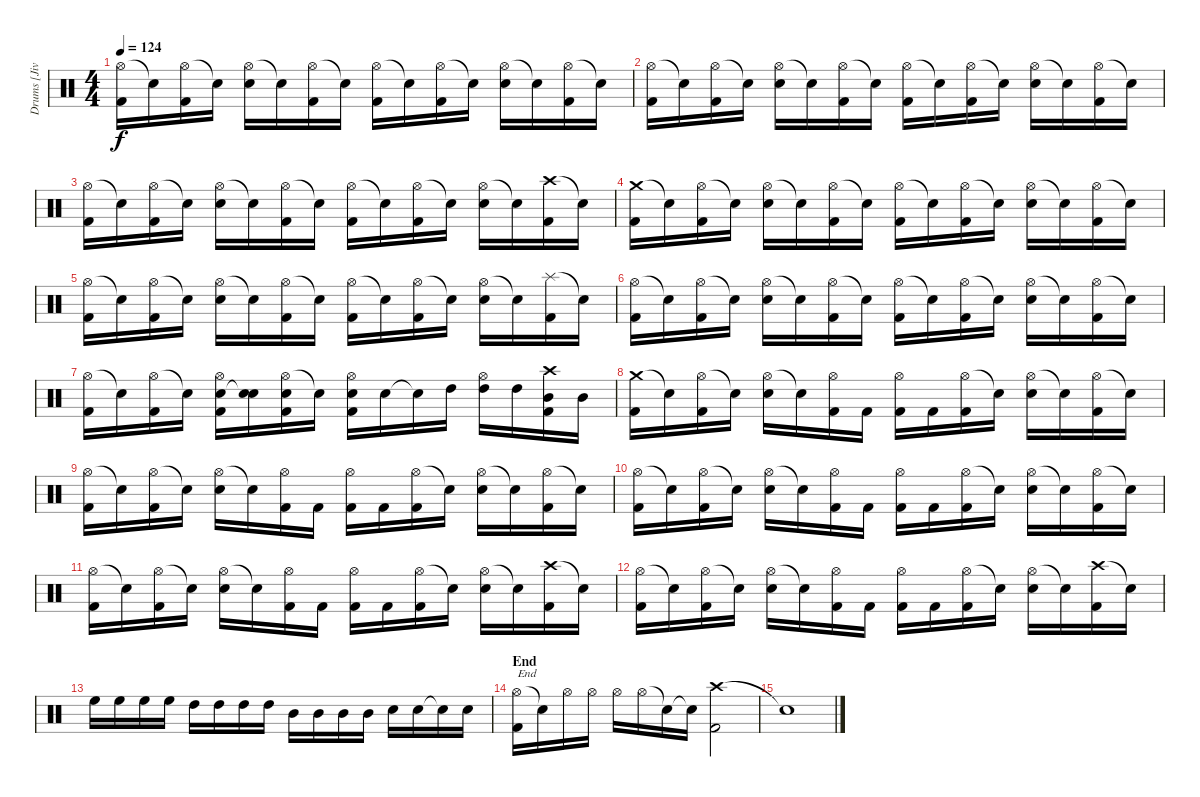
\track ("Drums [Jivarp]" "Drums [Jiv") {instrument percussion}
\staff {score}
\articulation defaults
\ts (4 4)
\tempo 124
\clef neutral
\ks c
("Hi-Hat (open)" "Kick (hit) 2").16{dy f} "Snare (hit)"{t}.16 ("Hi-Hat (open)" "Kick (hit) 2").16 "Snare (hit)"{t}.16 ("Hi-Hat (open)" "Electric Snare (hit)").16 "Snare (hit)"{t}.16 ("Hi-Hat (open)" "Kick (hit) 2").16 "Snare (hit)"{t}.16 ("Hi-Hat (open)" "Kick (hit) 2").16 "Snare (hit)"{t}.16 ("Hi-Hat (open)" "Kick (hit) 2").16 "Snare (hit)"{t}.16 ("Hi-Hat (open)" "Electric Snare (hit)").16 "Snare (hit)"{t}.16 ("Hi-Hat (open)" "Kick (hit) 2").16 "Snare (hit)"{t}.16 |
("Hi-Hat (open)" "Kick (hit) 2").16 "Snare (hit)"{t}.16 ("Hi-Hat (open)" "Kick (hit) 2").16 "Snare (hit)"{t}.16 ("Hi-Hat (open)" "Electric Snare (hit)").16 "Snare (hit)"{t}.16 ("Hi-Hat (open)" "Kick (hit) 2").16 "Snare (hit)"{t}.16 ("Hi-Hat (open)" "Kick (hit) 2").16 "Snare (hit)"{t}.16 ("Hi-Hat (open)" "Kick (hit) 2").16 "Snare (hit)"{t}.16 ("Hi-Hat (open)" "Electric Snare (hit)").16 "Snare (hit)"{t}.16 ("Hi-Hat (open)" "Kick (hit) 2").16 "Snare (hit)"{t}.16 |
("Hi-Hat (open)" "Kick (hit) 2").16 "Snare (hit)"{t}.16 ("Hi-Hat (open)" "Kick (hit) 2").16 "Snare (hit)"{t}.16 ("Hi-Hat (open)" "Electric Snare (hit)").16 "Snare (hit)"{t}.16 ("Hi-Hat (open)" "Kick (hit) 2").16 "Snare (hit)"{t}.16 ("Hi-Hat (open)" "Kick (hit) 2").16 "Snare (hit)"{t}.16 ("Hi-Hat (open)" "Kick (hit) 2").16 "Snare (hit)"{t}.16 ("Hi-Hat (open)" "Electric Snare (hit)").16 "Snare (hit)"{t}.16 ("Crash high (hit)" "Kick (hit) 2").16 "Snare (hit)"{t}.16 |
("Crash medium (hit)" "Kick (hit) 2").16 "Snare (hit)"{t}.16 ("Hi-Hat (open)" "Kick (hit) 2").16 "Snare (hit)"{t}.16 ("Hi-Hat (open)" "Electric Snare (hit)").16 "Snare (hit)"{t}.16 ("Hi-Hat (open)" "Kick (hit) 2").16 "Snare (hit)"{t}.16 ("Hi-Hat (open)" "Kick (hit) 2").16 "Snare (hit)"{t}.16 ("Hi-Hat (open)" "Kick (hit) 2").16 "Snare (hit)"{t}.16 ("Hi-Hat (open)" "Electric Snare (hit)").16 "Snare (hit)"{t}.16 ("Hi-Hat (open)" "Kick (hit) 2").16 "Snare (hit)"{t}.16 |
("Hi-Hat (open)" "Kick (hit) 2").16 "Snare (hit)"{t}.16 ("Hi-Hat (open)" "Kick (hit) 2").16 "Snare (hit)"{t}.16 ("Hi-Hat (open)" "Electric Snare (hit)").16 "Snare (hit)"{t}.16 ("Hi-Hat (open)" "Kick (hit) 2").16 "Snare (hit)"{t}.16 ("Hi-Hat (open)" "Kick (hit) 2").16 "Snare (hit)"{t}.16 ("Hi-Hat (open)" "Kick (hit) 2").16 "Snare (hit)"{t}.16 ("Hi-Hat (open)" "Electric Snare (hit)").16 "Snare (hit)"{t}.16 ("Splash (hit)" "Kick (hit) 2").16 "Snare (hit)"{t}.16 |
("Hi-Hat (open)" "Kick (hit) 2").16 "Snare (hit)"{t}.16 ("Hi-Hat (open)" "Kick (hit) 2").16 "Snare (hit)"{t}.16 ("Hi-Hat (open)" "Electric Snare (hit)").16 "Snare (hit)"{t}.16 ("Hi-Hat (open)" "Kick (hit) 2").16 "Snare (hit)"{t}.16 ("Hi-Hat (open)" "Kick (hit) 2").16 "Snare (hit)"{t}.16 ("Hi-Hat (open)" "Kick (hit) 2").16 "Snare (hit)"{t}.16 ("Hi-Hat (open)" "Electric Snare (hit)").16 "Snare (hit)"{t}.16 ("Hi-Hat (open)" "Kick (hit) 2").16 "Snare (hit)"{t}.16 |
("Hi-Hat (open)" "Kick (hit) 2").16 "Snare (hit)"{t}.16 ("Hi-Hat (open)" "Kick (hit) 2").16 "Snare (hit)"{t}.16 ("Hi-Hat (open)" "Electric Snare (hit)" "Kick (hit) 2").16 ("Electric Snare (hit)" "Snare (hit)"{t}).16 ("Hi-Hat (open)" "Electric Snare (hit)" "Kick (hit) 2").16 "Snare (hit)"{t}.16 ("Hi-Hat (open)" "Electric Snare (hit)" "Kick (hit) 2").16 "Electric Snare (hit)".16 "Snare (hit)"{t}.16 "High Tom (hit)".16 ("Hi-Hat (open)" "High Tom (hit)").16 "High Tom (hit)".16 ("Crash high (hit)" "Mid Tom (hit)" "Kick (hit) 2").16 "Mid Tom (hit)".16 |
("Crash medium (hit)" "Kick (hit) 2").16 "Snare (hit)"{t}.16 ("Hi-Hat (open)" "Kick (hit) 2").16 "Snare (hit)"{t}.16 ("Hi-Hat (open)" "Electric Snare (hit)").16 "Snare (hit)"{t}.16 ("Hi-Hat (open)" "Kick (hit) 2").16 "Kick (hit) 2".16 ("Hi-Hat (open)" "Kick (hit) 2").16 "Kick (hit) 2".16 ("Hi-Hat (open)" "Kick (hit) 2").16 "Snare (hit)"{t}.16 ("Hi-Hat (open)" "Electric Snare (hit)").16 "Snare (hit)"{t}.16 ("Hi-Hat (open)" "Kick (hit) 2").16 "Snare (hit)"{t}.16 |
("Hi-Hat (open)" "Kick (hit) 2").16 "Snare (hit)"{t}.16 ("Hi-Hat (open)" "Kick (hit) 2").16 "Snare (hit)"{t}.16 ("Hi-Hat (open)" "Electric Snare (hit)").16 "Snare (hit)"{t}.16 ("Hi-Hat (open)" "Kick (hit) 2").16 "Kick (hit) 2".16 ("Hi-Hat (open)" "Kick (hit) 2").16 "Kick (hit) 2".16 ("Hi-Hat (open)" "Kick (hit) 2").16 "Snare (hit)"{t}.16 ("Hi-Hat (open)" "Electric Snare (hit)").16 "Snare (hit)"{t}.16 ("Hi-Hat (open)" "Kick (hit) 2").16 "Snare (hit)"{t}.16 |
("Hi-Hat (open)" "Kick (hit) 2").16 "Snare (hit)"{t}.16 ("Hi-Hat (open)" "Kick (hit) 2").16 "Snare (hit)"{t}.16 ("Hi-Hat (open)" "Electric Snare (hit)").16 "Snare (hit)"{t}.16 ("Hi-Hat (open)" "Kick (hit) 2").16 "Kick (hit) 2".16 ("Hi-Hat (open)" "Kick (hit) 2").16 "Kick (hit) 2".16 ("Hi-Hat (open)" "Kick (hit) 2").16 "Snare (hit)"{t}.16 ("Hi-Hat (open)" "Electric Snare (hit)").16 "Snare (hit)"{t}.16 ("Hi-Hat (open)" "Kick (hit) 2").16 "Snare (hit)"{t}.16 |
("Hi-Hat (open)" "Kick (hit) 2").16 "Snare (hit)"{t}.16 ("Hi-Hat (open)" "Kick (hit) 2").16 "Snare (hit)"{t}.16 ("Hi-Hat (open)" "Electric Snare (hit)").16 "Snare (hit)"{t}.16 ("Hi-Hat (open)" "Kick (hit) 2").16 "Kick (hit) 2".16 ("Hi-Hat (open)" "Kick (hit) 2").16 "Kick (hit) 2".16 ("Hi-Hat (open)" "Kick (hit) 2").16 "Snare (hit)"{t}.16 ("Hi-Hat (open)" "Electric Snare (hit)").16 "Snare (hit)"{t}.16 ("Crash high (hit)" "Kick (hit) 2").16 "Snare (hit)"{t}.16 |
("Hi-Hat (open)" "Kick (hit) 2").16 "Snare (hit)"{t}.16 ("Hi-Hat (open)" "Kick (hit) 2").16 "Snare (hit)"{t}.16 ("Hi-Hat (open)" "Electric Snare (hit)").16 "Snare (hit)"{t}.16 ("Hi-Hat (open)" "Kick (hit) 2").16 "Kick (hit) 2".16 ("Hi-Hat (open)" "Kick (hit) 2").16 "Kick (hit) 2".16 ("Hi-Hat (open)" "Kick (hit) 2").16 "Snare (hit)"{t}.16 ("Hi-Hat (open)" "Electric Snare (hit)").16 "Snare (hit)"{t}.16 ("Crash high (hit)" "Kick (hit) 2").16 "Snare (hit)"{t}.16 |
"High Floor Tom (hit)".16 "High Floor Tom (hit)".16 "High Floor Tom (hit)".16 "High Floor Tom (hit)".16 "High Tom (hit)".16 "High Tom (hit)".16 "High Tom (hit)".16 "High Tom (hit)".16 "Mid Tom (hit)".16 "Mid Tom (hit)".16 "Mid Tom (hit)".16 "Mid Tom (hit)".16 "Electric Snare (hit)".16 "Electric Snare (hit)".16 "Snare (hit)"{t}.16 "Electric Snare (hit)".16 |
\section ("" "End")
("Hi-Hat (open)" "Kick (hit) 2").16{txt "End"} "Snare (hit)"{t}.16 "Hi-Hat (open)".16 "Hi-Hat (open)".16 "Hi-Hat (open)".16 "Hi-Hat (open)".16 "Snare (hit)"{t}.16 "Snare (hit)"{t}.16 ("Crash high (hit)" "Kick (hit) 2").2 |
"Snare (hit)"{t}.1
